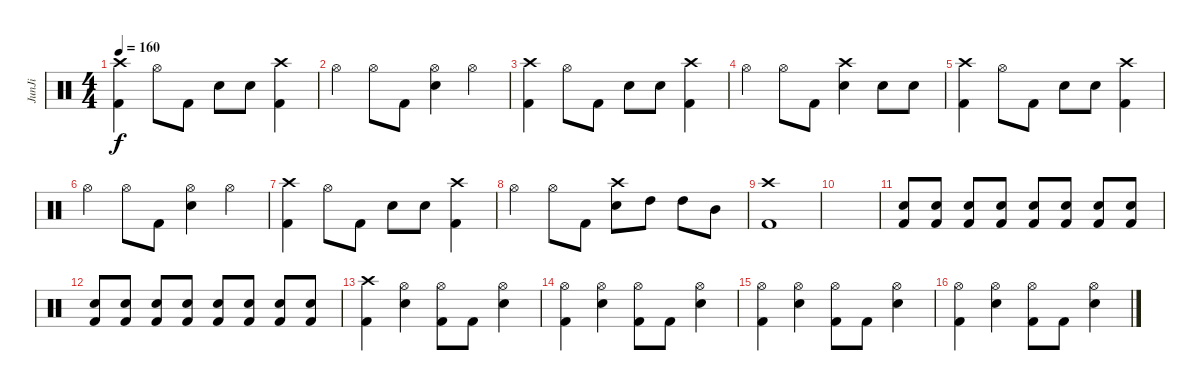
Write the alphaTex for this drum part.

\track ("JunJi" "JunJi") {instrument percussion}
\staff {score}
\articulation defaults
\ts (4 4)
\tempo 160
\clef neutral
\ks c
("Crash high (hit)" "Kick (hit) 2").4{dy f} "Hi-Hat (open)".8 "Kick (hit) 2".8 "Snare (hit) 2".8 "Snare (hit) 2".8 ("Crash high (hit)" "Kick (hit) 2").4 |
"Hi-Hat (open)".4 "Hi-Hat (open)".8 "Kick (hit) 2".8 ("Hi-Hat (open)" "Snare (hit) 2").4 "Hi-Hat (open)".4 |
("Crash high (hit)" "Kick (hit) 2").4 "Hi-Hat (open)".8 "Kick (hit) 2".8 "Snare (hit) 2".8 "Snare (hit) 2".8 ("Crash high (hit)" "Kick (hit) 2").4 |
"Hi-Hat (open)".4 "Hi-Hat (open)".8 "Kick (hit) 2".8 ("Crash high (hit)" "Snare (hit) 2").4 "Snare (hit) 2".8 "Snare (hit) 2".8 |
("Crash high (hit)" "Kick (hit) 2").4 "Hi-Hat (open)".8 "Kick (hit) 2".8 "Snare (hit) 2".8 "Snare (hit) 2".8 ("Crash high (hit)" "Kick (hit) 2").4 |
"Hi-Hat (open)".4 "Hi-Hat (open)".8 "Kick (hit) 2".8 ("Hi-Hat (open)" "Snare (hit) 2").4 "Hi-Hat (open)".4 |
("Crash high (hit)" "Kick (hit) 2").4 "Hi-Hat (open)".8 "Kick (hit) 2".8 "Snare (hit) 2".8 "Snare (hit) 2".8 ("Crash high (hit)" "Kick (hit) 2").4 |
"Hi-Hat (open)".4 "Hi-Hat (open)".8 "Kick (hit) 2".8 ("Crash high (hit)" "Snare (hit) 2").8 "High Tom (hit)".8 "High Tom (hit)".8 "Mid Tom (hit)".8 |
("Crash high (hit)" "Kick (hit) 2").1 |
|
("Snare (hit) 2" "Kick (hit) 2").8 ("Snare (hit) 2" "Kick (hit) 2").8 ("Snare (hit) 2" "Kick (hit) 2").8 ("Snare (hit) 2" "Kick (hit) 2").8 ("Snare (hit) 2" "Kick (hit) 2").8 ("Snare (hit) 2" "Kick (hit) 2").8 ("Snare (hit) 2" "Kick (hit) 2").8 ("Snare (hit) 2" "Kick (hit) 2").8 |
("Snare (hit) 2" "Kick (hit) 2").8 ("Snare (hit) 2" "Kick (hit) 2").8 ("Snare (hit) 2" "Kick (hit) 2").8 ("Snare (hit) 2" "Kick (hit) 2").8 ("Snare (hit) 2" "Kick (hit) 2").8 ("Snare (hit) 2" "Kick (hit) 2").8 ("Snare (hit) 2" "Kick (hit) 2").8 ("Snare (hit) 2" "Kick (hit) 2").8 |
("Crash high (hit)" "Kick (hit) 2").4 ("Hi-Hat (open)" "Snare (hit) 2").4 ("Hi-Hat (open)" "Kick (hit) 2").8 "Kick (hit) 2".8 ("Hi-Hat (open)" "Snare (hit) 2").4 |
("Hi-Hat (open)" "Kick (hit) 2").4 ("Hi-Hat (open)" "Snare (hit) 2").4 ("Hi-Hat (open)" "Kick (hit) 2").8 "Kick (hit) 2".8 ("Hi-Hat (open)" "Snare (hit) 2").4 |
("Hi-Hat (open)" "Kick (hit) 2").4 ("Hi-Hat (open)" "Snare (hit) 2").4 ("Hi-Hat (open)" "Kick (hit) 2").8 "Kick (hit) 2".8 ("Hi-Hat (open)" "Snare (hit) 2").4 |
("Hi-Hat (open)" "Kick (hit) 2").4 ("Hi-Hat (open)" "Snare (hit) 2").4 ("Hi-Hat (open)" "Kick (hit) 2").8 "Kick (hit) 2".8 ("Hi-Hat (open)" "Snare (hit) 2").4
